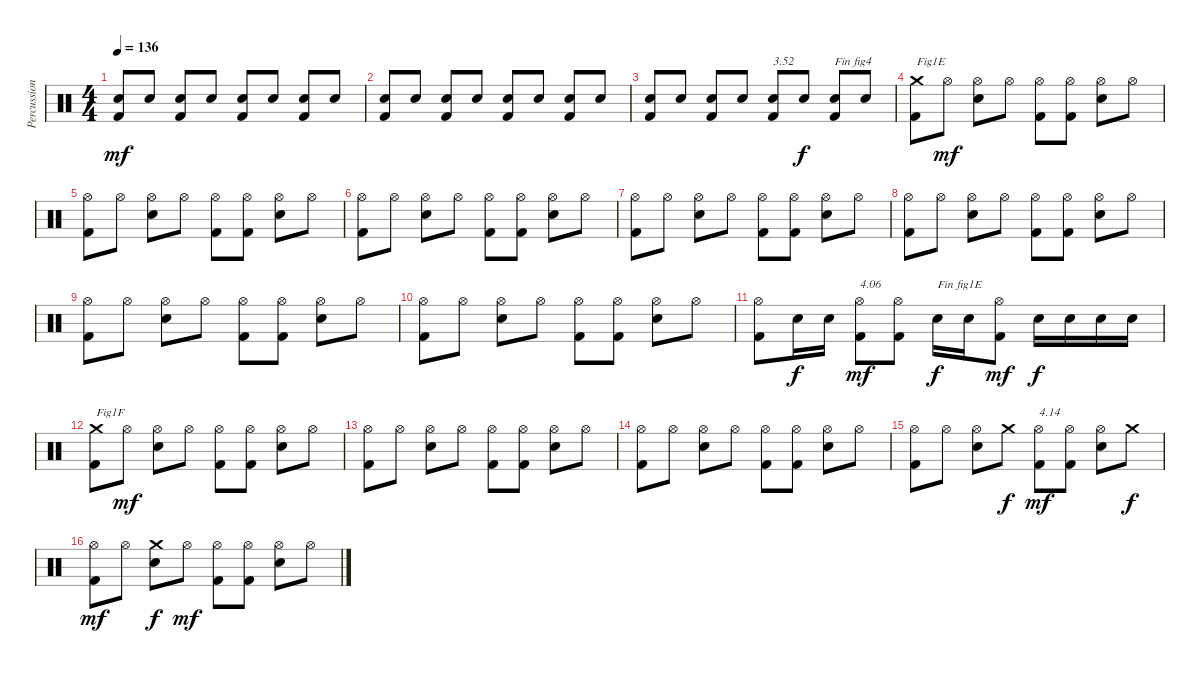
\track ("Percussions" "Percussion") {instrument percussion}
\staff {score}
\articulation defaults
\ts (4 4)
\tempo 136
\clef neutral
\ks c
("Kick (hit) 2" "Snare (hit) 2").8{dy mf} "Snare (hit) 2".8 ("Kick (hit) 2" "Snare (hit) 2").8 "Snare (hit) 2".8 ("Kick (hit) 2" "Snare (hit) 2").8 "Snare (hit) 2".8 ("Kick (hit) 2" "Snare (hit) 2").8 "Snare (hit) 2".8 |
("Kick (hit) 2" "Snare (hit) 2").8 "Snare (hit) 2".8 ("Kick (hit) 2" "Snare (hit) 2").8 "Snare (hit) 2".8 ("Kick (hit) 2" "Snare (hit) 2").8 "Snare (hit) 2".8 ("Kick (hit) 2" "Snare (hit) 2").8 "Snare (hit) 2".8 |
("Kick (hit) 2" "Snare (hit) 2").8 "Snare (hit) 2".8 ("Kick (hit) 2" "Snare (hit) 2").8 "Snare (hit) 2".8 ("Kick (hit) 2" "Snare (hit) 2").8{txt "3.52"} "Electric Snare (hit)".8{dy f} ("Kick (hit) 2" "Electric Snare (hit)").8{txt "Fin fig4"} "Electric Snare (hit)".8 |
("Kick (hit) 2" "Crash medium (hit)").8{txt "Fig1E"} "Hi-Hat (open)".8{dy mf} ("Electric Snare (hit)" "Hi-Hat (open)").8 "Hi-Hat (open)".8 ("Kick (hit) 2" "Hi-Hat (open)").8 ("Kick (hit) 2" "Hi-Hat (open)").8 ("Electric Snare (hit)" "Hi-Hat (open)").8 "Hi-Hat (open)".8 |
("Kick (hit) 2" "Hi-Hat (open)").8 "Hi-Hat (open)".8 ("Electric Snare (hit)" "Hi-Hat (open)").8 "Hi-Hat (open)".8 ("Kick (hit) 2" "Hi-Hat (open)").8 ("Kick (hit) 2" "Hi-Hat (open)").8 ("Electric Snare (hit)" "Hi-Hat (open)").8 "Hi-Hat (open)".8 |
("Kick (hit) 2" "Hi-Hat (open)").8 "Hi-Hat (open)".8 ("Electric Snare (hit)" "Hi-Hat (open)").8 "Hi-Hat (open)".8 ("Kick (hit) 2" "Hi-Hat (open)").8 ("Kick (hit) 2" "Hi-Hat (open)").8 ("Electric Snare (hit)" "Hi-Hat (open)").8 "Hi-Hat (open)".8 |
("Kick (hit) 2" "Hi-Hat (open)").8 "Hi-Hat (open)".8 ("Electric Snare (hit)" "Hi-Hat (open)").8 "Hi-Hat (open)".8 ("Kick (hit) 2" "Hi-Hat (open)").8 ("Kick (hit) 2" "Hi-Hat (open)").8 ("Electric Snare (hit)" "Hi-Hat (open)").8 "Hi-Hat (open)".8 |
("Kick (hit) 2" "Hi-Hat (open)").8 "Hi-Hat (open)".8 ("Electric Snare (hit)" "Hi-Hat (open)").8 "Hi-Hat (open)".8 ("Kick (hit) 2" "Hi-Hat (open)").8 ("Kick (hit) 2" "Hi-Hat (open)").8 ("Electric Snare (hit)" "Hi-Hat (open)").8 "Hi-Hat (open)".8 |
("Kick (hit) 2" "Hi-Hat (open)").8 "Hi-Hat (open)".8 ("Electric Snare (hit)" "Hi-Hat (open)").8 "Hi-Hat (open)".8 ("Kick (hit) 2" "Hi-Hat (open)").8 ("Kick (hit) 2" "Hi-Hat (open)").8 ("Electric Snare (hit)" "Hi-Hat (open)").8 "Hi-Hat (open)".8 |
("Kick (hit) 2" "Hi-Hat (open)").8 "Hi-Hat (open)".8 ("Electric Snare (hit)" "Hi-Hat (open)").8 "Hi-Hat (open)".8 ("Kick (hit) 2" "Hi-Hat (open)").8 ("Kick (hit) 2" "Hi-Hat (open)").8 ("Electric Snare (hit)" "Hi-Hat (open)").8 "Hi-Hat (open)".8 |
("Kick (hit) 2" "Hi-Hat (open)").8 "Electric Snare (hit)".16{dy f} "Electric Snare (hit)".16 ("Kick (hit) 2" "Hi-Hat (open)").8{txt "4.06" dy mf} ("Kick (hit) 2" "Hi-Hat (open)").8 "Electric Snare (hit)".16{txt "Fin fig1E" dy f} "Electric Snare (hit)".16 ("Kick (hit) 2" "Hi-Hat (open)").8{dy mf} "Electric Snare (hit)".16{dy f} "Electric Snare (hit)".16 "Electric Snare (hit)".16 "Electric Snare (hit)".16 |
("Kick (hit) 2" "Crash medium (hit)").8{txt "Fig1F"} "Hi-Hat (open)".8{dy mf} ("Electric Snare (hit)" "Hi-Hat (open)").8 "Hi-Hat (open)".8 ("Kick (hit) 2" "Hi-Hat (open)").8 ("Kick (hit) 2" "Hi-Hat (open)").8 ("Electric Snare (hit)" "Hi-Hat (open)").8 "Hi-Hat (open)".8 |
("Kick (hit) 2" "Hi-Hat (open)").8 "Hi-Hat (open)".8 ("Electric Snare (hit)" "Hi-Hat (open)").8 "Hi-Hat (open)".8 ("Kick (hit) 2" "Hi-Hat (open)").8 ("Kick (hit) 2" "Hi-Hat (open)").8 ("Electric Snare (hit)" "Hi-Hat (open)").8 "Hi-Hat (open)".8 |
("Kick (hit) 2" "Hi-Hat (open)").8 "Hi-Hat (open)".8 ("Electric Snare (hit)" "Hi-Hat (open)").8 "Hi-Hat (open)".8 ("Kick (hit) 2" "Hi-Hat (open)").8 ("Kick (hit) 2" "Hi-Hat (open)").8 ("Electric Snare (hit)" "Hi-Hat (open)").8 "Hi-Hat (open)".8 |
("Kick (hit) 2" "Hi-Hat (open)").8 "Hi-Hat (open)".8 ("Electric Snare (hit)" "Hi-Hat (open)").8 "Crash medium (hit)".8{dy f} ("Kick (hit) 2" "Hi-Hat (open)").8{txt "4.14" dy mf} ("Kick (hit) 2" "Hi-Hat (open)").8 ("Electric Snare (hit)" "Hi-Hat (open)").8 "Crash medium (hit)".8{dy f} |
("Kick (hit) 2" "Hi-Hat (open)").8{dy mf} "Hi-Hat (open)".8 ("Electric Snare (hit)" "Crash medium (hit)").8{dy f} "Hi-Hat (open)".8{dy mf} ("Kick (hit) 2" "Hi-Hat (open)").8 ("Kick (hit) 2" "Hi-Hat (open)").8 ("Electric Snare (hit)" "Hi-Hat (open)").8 "Hi-Hat (open)".8
